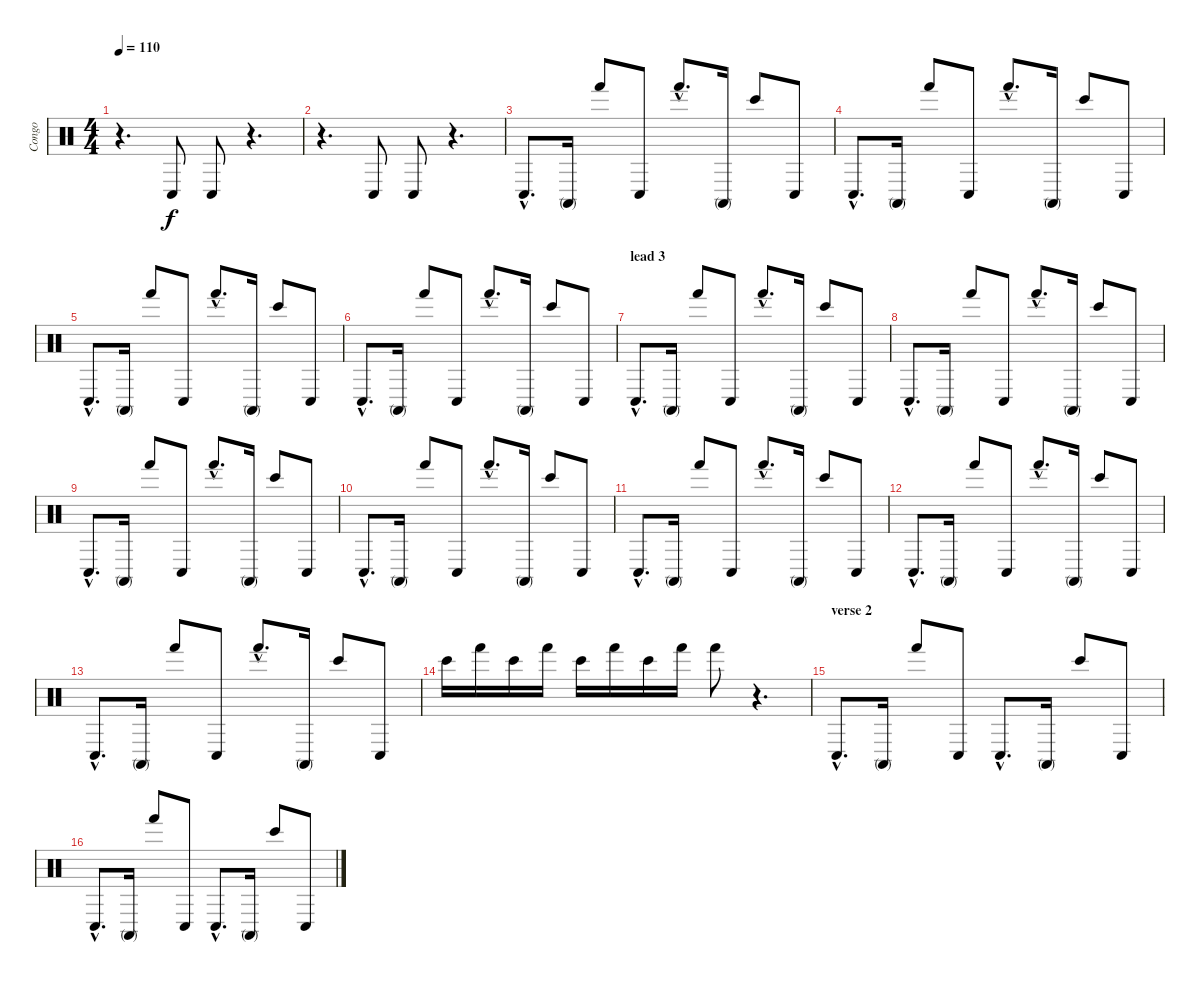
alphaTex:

\track ("Congo" "Congo") {instrument percussion}
\staff {score}
\articulation defaults
\ts (4 4)
\tempo 110
\clef neutral
\ks c
r.4{d dy f} "Conga low (hit)".8 "Conga low (hit)".8 r.4{d} |
r.4{d} "Conga low (hit)".8 "Conga low (hit)".8 r.4{d} |
"Conga low (hit)"{hac}.8{d} "Conga high (mute)".16 "Hand (hit)".8 "Conga low (hit)".8 "Hand (hit)"{hac}.8{d} "Conga high (mute)".16 "Bongo High (hit)".8 "Conga low (hit)".8 |
"Conga low (hit)"{hac}.8{d} "Conga high (mute)".16 "Hand (hit)".8 "Conga low (hit)".8 "Hand (hit)"{hac}.8{d} "Conga high (mute)".16 "Bongo High (hit)".8 "Conga low (hit)".8 |
"Conga low (hit)"{hac}.8{d} "Conga high (mute)".16 "Hand (hit)".8 "Conga low (hit)".8 "Hand (hit)"{hac}.8{d} "Conga high (mute)".16 "Bongo High (hit)".8 "Conga low (hit)".8 |
"Conga low (hit)"{hac}.8{d} "Conga high (mute)".16 "Hand (hit)".8 "Conga low (hit)".8 "Hand (hit)"{hac}.8{d} "Conga high (mute)".16 "Bongo High (hit)".8 "Conga low (hit)".8 |
\section ("" "lead 3")
"Conga low (hit)"{hac}.8{d} "Conga high (mute)".16 "Hand (hit)".8 "Conga low (hit)".8 "Hand (hit)"{hac}.8{d} "Conga high (mute)".16 "Bongo High (hit)".8 "Conga low (hit)".8 |
"Conga low (hit)"{hac}.8{d} "Conga high (mute)".16 "Hand (hit)".8 "Conga low (hit)".8 "Hand (hit)"{hac}.8{d} "Conga high (mute)".16 "Bongo High (hit)".8 "Conga low (hit)".8 |
"Conga low (hit)"{hac}.8{d} "Conga high (mute)".16 "Hand (hit)".8 "Conga low (hit)".8 "Hand (hit)"{hac}.8{d} "Conga high (mute)".16 "Bongo High (hit)".8 "Conga low (hit)".8 |
"Conga low (hit)"{hac}.8{d} "Conga high (mute)".16 "Hand (hit)".8 "Conga low (hit)".8 "Hand (hit)"{hac}.8{d} "Conga high (mute)".16 "Bongo High (hit)".8 "Conga low (hit)".8 |
"Conga low (hit)"{hac}.8{d} "Conga high (mute)".16 "Hand (hit)".8 "Conga low (hit)".8 "Hand (hit)"{hac}.8{d} "Conga high (mute)".16 "Bongo High (hit)".8 "Conga low (hit)".8 |
"Conga low (hit)"{hac}.8{d} "Conga high (mute)".16 "Hand (hit)".8 "Conga low (hit)".8 "Hand (hit)"{hac}.8{d} "Conga high (mute)".16 "Bongo High (hit)".8 "Conga low (hit)".8 |
"Conga low (hit)"{hac}.8{d} "Conga high (mute)".16 "Hand (hit)".8 "Conga low (hit)".8 "Hand (hit)"{hac}.8{d} "Conga high (mute)".16 "Bongo High (hit)".8 "Conga low (hit)".8 |
"Bongo High (hit)".16 "Hand (hit)".16 "Bongo High (hit)".16 "Hand (hit)".16 "Bongo High (hit)".16 "Hand (hit)".16 "Bongo High (hit)".16 "Hand (hit)".16 "Hand (hit)".8 r.4{d} |
\section ("" "verse 2")
"Conga low (hit)"{hac}.8{d} "Conga high (mute)".16 "Hand (hit)".8 "Conga low (hit)".8 "Conga low (hit)"{hac}.8{d} "Conga high (mute)".16 "Bongo High (hit)".8 "Conga low (hit)".8 |
"Conga low (hit)"{hac}.8{d} "Conga high (mute)".16 "Hand (hit)".8 "Conga low (hit)".8 "Conga low (hit)"{hac}.8{d} "Conga high (mute)".16 "Bongo High (hit)".8 "Conga low (hit)".8
